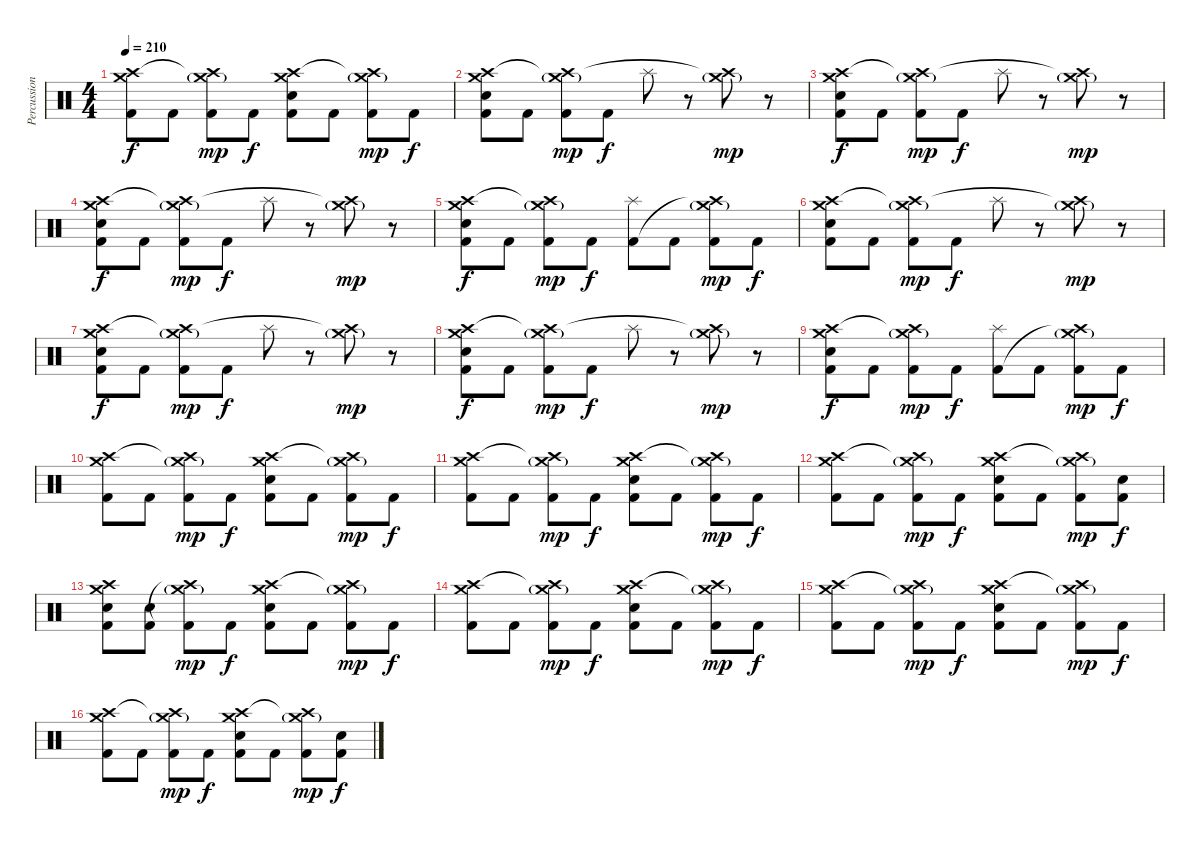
\track ("Percussion" "Percussion") {instrument percussion}
\staff {score}
\articulation defaults
\ts (4 4)
\tempo 210
\clef neutral
\ks c
("Crash medium (hit)" "Crash high (hit)" "Kick (hit) 2").8{dy f} "Kick (hit) 2".8 ("Crash medium (hit)"{g} "Crash high (hit)"{t} "Kick (hit) 2").8{dy mp} "Kick (hit) 2".8{dy f} ("Crash medium (hit)" "Crash high (hit)" "Electric Snare (hit)" "Kick (hit) 2").8 "Kick (hit) 2".8 ("Crash medium (hit)"{g} "Crash high (hit)"{t} "Kick (hit) 2").8{dy mp} "Kick (hit) 2".8{dy f} |
("Crash medium (hit)" "Crash high (hit)" "Electric Snare (hit)" "Kick (hit) 2").8 "Kick (hit) 2".8 ("Crash medium (hit)"{g} "Crash high (hit)"{t} "Kick (hit) 2").8{dy mp} "Kick (hit) 2".8{dy f} "Splash (hit)".8 r.8 ("Crash medium (hit)"{g} "Crash high (hit)"{t}).8{dy mp} r.8 |
("Crash medium (hit)" "Crash high (hit)" "Electric Snare (hit)" "Kick (hit) 2").8{dy f} "Kick (hit) 2".8 ("Crash medium (hit)"{g} "Crash high (hit)"{t} "Kick (hit) 2").8{dy mp} "Kick (hit) 2".8{dy f} "Splash (hit)".8 r.8 ("Crash medium (hit)"{g} "Crash high (hit)"{t}).8{dy mp} r.8 |
("Crash medium (hit)" "Crash high (hit)" "Electric Snare (hit)" "Kick (hit) 2").8{dy f} "Kick (hit) 2".8 ("Crash medium (hit)"{g} "Crash high (hit)"{t} "Kick (hit) 2").8{dy mp} "Kick (hit) 2".8{dy f} "Splash (hit)".8 r.8 ("Crash medium (hit)"{g} "Crash high (hit)"{t}).8{dy mp} r.8 |
("Crash medium (hit)" "Crash high (hit)" "Electric Snare (hit)" "Kick (hit) 2").8{dy f} "Kick (hit) 2".8 ("Crash medium (hit)"{g} "Crash high (hit)"{t} "Kick (hit) 2").8{dy mp} "Kick (hit) 2".8{dy f} ("Splash (hit)" "Kick (hit) 2").8 "Kick (hit) 2".8 ("Crash medium (hit)"{g} "Crash high (hit)"{t} "Kick (hit) 2").8{dy mp} "Kick (hit) 2".8{dy f} |
("Crash medium (hit)" "Crash high (hit)" "Electric Snare (hit)" "Kick (hit) 2").8 "Kick (hit) 2".8 ("Crash medium (hit)"{g} "Crash high (hit)"{t} "Kick (hit) 2").8{dy mp} "Kick (hit) 2".8{dy f} "Splash (hit)".8 r.8 ("Crash medium (hit)"{g} "Crash high (hit)"{t}).8{dy mp} r.8 |
("Crash medium (hit)" "Crash high (hit)" "Electric Snare (hit)" "Kick (hit) 2").8{dy f} "Kick (hit) 2".8 ("Crash medium (hit)"{g} "Crash high (hit)"{t} "Kick (hit) 2").8{dy mp} "Kick (hit) 2".8{dy f} "Splash (hit)".8 r.8 ("Crash medium (hit)"{g} "Crash high (hit)"{t}).8{dy mp} r.8 |
("Crash medium (hit)" "Crash high (hit)" "Electric Snare (hit)" "Kick (hit) 2").8{dy f} "Kick (hit) 2".8 ("Crash medium (hit)"{g} "Crash high (hit)"{t} "Kick (hit) 2").8{dy mp} "Kick (hit) 2".8{dy f} "Splash (hit)".8 r.8 ("Crash medium (hit)"{g} "Crash high (hit)"{t}).8{dy mp} r.8 |
("Crash medium (hit)" "Crash high (hit)" "Electric Snare (hit)" "Kick (hit) 2").8{dy f} "Kick (hit) 2".8 ("Crash medium (hit)"{g} "Crash high (hit)"{t} "Kick (hit) 2").8{dy mp} "Kick (hit) 2".8{dy f} ("Splash (hit)" "Kick (hit) 2").8 "Kick (hit) 2".8 ("Crash medium (hit)"{g} "Crash high (hit)"{t} "Kick (hit) 2").8{dy mp} "Kick (hit) 2".8{dy f} |
("Crash medium (hit)" "Crash high (hit)" "Kick (hit) 2").8 "Kick (hit) 2".8 ("Crash medium (hit)"{g} "Crash high (hit)"{t} "Kick (hit) 2").8{dy mp} "Kick (hit) 2".8{dy f} ("Crash medium (hit)" "Crash high (hit)" "Electric Snare (hit)" "Kick (hit) 2").8 "Kick (hit) 2".8 ("Crash medium (hit)"{g} "Crash high (hit)"{t} "Kick (hit) 2").8{dy mp} "Kick (hit) 2".8{dy f} |
("Crash medium (hit)" "Crash high (hit)" "Kick (hit) 2").8 "Kick (hit) 2".8 ("Crash medium (hit)"{g} "Crash high (hit)"{t} "Kick (hit) 2").8{dy mp} "Kick (hit) 2".8{dy f} ("Crash medium (hit)" "Crash high (hit)" "Electric Snare (hit)" "Kick (hit) 2").8 "Kick (hit) 2".8 ("Crash medium (hit)"{g} "Crash high (hit)"{t} "Kick (hit) 2").8{dy mp} "Kick (hit) 2".8{dy f} |
("Crash medium (hit)" "Crash high (hit)" "Kick (hit) 2").8 "Kick (hit) 2".8 ("Crash medium (hit)"{g} "Crash high (hit)"{t} "Kick (hit) 2").8{dy mp} "Kick (hit) 2".8{dy f} ("Crash medium (hit)" "Crash high (hit)" "Electric Snare (hit)" "Kick (hit) 2").8 "Kick (hit) 2".8 ("Crash medium (hit)"{g} "Crash high (hit)"{t} "Kick (hit) 2").8{dy mp} ("Electric Snare (hit)" "Kick (hit) 2").8{dy f} |
("Crash medium (hit)" "Crash high (hit)" "Electric Snare (hit)" "Kick (hit) 2").8 ("Electric Snare (hit)" "Kick (hit) 2").8 ("Crash medium (hit)"{g} "Crash high (hit)"{t} "Kick (hit) 2").8{dy mp} "Kick (hit) 2".8{dy f} ("Crash medium (hit)" "Crash high (hit)" "Electric Snare (hit)" "Kick (hit) 2").8 "Kick (hit) 2".8 ("Crash medium (hit)"{g} "Crash high (hit)"{t} "Kick (hit) 2").8{dy mp} "Kick (hit) 2".8{dy f} |
("Crash medium (hit)" "Crash high (hit)" "Kick (hit) 2").8 "Kick (hit) 2".8 ("Crash medium (hit)"{g} "Crash high (hit)"{t} "Kick (hit) 2").8{dy mp} "Kick (hit) 2".8{dy f} ("Crash medium (hit)" "Crash high (hit)" "Electric Snare (hit)" "Kick (hit) 2").8 "Kick (hit) 2".8 ("Crash medium (hit)"{g} "Crash high (hit)"{t} "Kick (hit) 2").8{dy mp} "Kick (hit) 2".8{dy f} |
("Crash medium (hit)" "Crash high (hit)" "Kick (hit) 2").8 "Kick (hit) 2".8 ("Crash medium (hit)"{g} "Crash high (hit)"{t} "Kick (hit) 2").8{dy mp} "Kick (hit) 2".8{dy f} ("Crash medium (hit)" "Crash high (hit)" "Electric Snare (hit)" "Kick (hit) 2").8 "Kick (hit) 2".8 ("Crash medium (hit)"{g} "Crash high (hit)"{t} "Kick (hit) 2").8{dy mp} "Kick (hit) 2".8{dy f} |
("Crash medium (hit)" "Crash high (hit)" "Kick (hit) 2").8 "Kick (hit) 2".8 ("Crash medium (hit)"{g} "Crash high (hit)"{t} "Kick (hit) 2").8{dy mp} "Kick (hit) 2".8{dy f} ("Crash medium (hit)" "Crash high (hit)" "Electric Snare (hit)" "Kick (hit) 2").8 "Kick (hit) 2".8 ("Crash medium (hit)"{g} "Crash high (hit)"{t} "Kick (hit) 2").8{dy mp} ("Electric Snare (hit)" "Kick (hit) 2").8{dy f}
